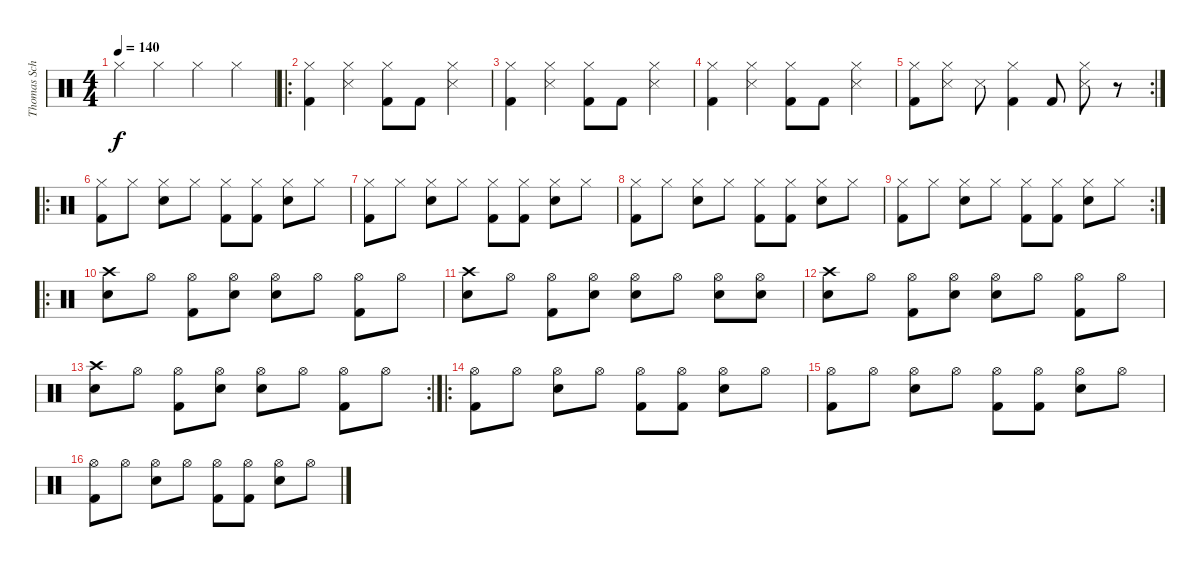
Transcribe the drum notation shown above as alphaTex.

\track ("Thomas Schnitzler" "Thomas Sch") {instrument percussion}
\staff {score}
\articulation defaults
\ts (4 4)
\tempo 140
\clef neutral
\ks c "Hi-Hat (closed)".4{dy f} "Hi-Hat (closed)".4 "Hi-Hat (closed)".4 "Hi-Hat (closed)".4
|
\ro
("Hi-Hat (closed)" "Kick (hit) 2").4 ("Hi-Hat (closed)" "Snare (side stick) 3").4 ("Hi-Hat (closed)" "Kick (hit) 2").8 "Kick (hit) 2".8 ("Hi-Hat (closed)" "Snare (side stick) 3").4 |
("Hi-Hat (closed)" "Kick (hit) 2").4 ("Hi-Hat (closed)" "Snare (side stick) 3").4 ("Hi-Hat (closed)" "Kick (hit) 2").8 "Kick (hit) 2".8 ("Hi-Hat (closed)" "Snare (side stick) 3").4 |
("Hi-Hat (closed)" "Kick (hit) 2").4 ("Hi-Hat (closed)" "Snare (side stick) 3").4 ("Hi-Hat (closed)" "Kick (hit) 2").8 "Kick (hit) 2".8 ("Hi-Hat (closed)" "Snare (side stick) 3").4 |
\rc 2
("Hi-Hat (closed)" "Kick (hit) 2").8 ("Hi-Hat (closed)" "Snare (side stick) 3").8 "Snare (side stick) 3".8 ("Hi-Hat (closed)" "Kick (hit) 2").4 "Kick (hit) 2".8 ("Hi-Hat (closed)" "Snare (side stick) 3").8 r.8 |
\ro
("Hi-Hat (closed)" "Kick (hit) 2").8 "Hi-Hat (closed)".8 ("Hi-Hat (closed)" "Snare (hit) 2").8 "Hi-Hat (closed)".8 ("Hi-Hat (closed)" "Kick (hit) 2").8 ("Hi-Hat (closed)" "Kick (hit) 2").8 ("Hi-Hat (closed)" "Snare (hit) 2").8 "Hi-Hat (closed)".8 |
("Hi-Hat (closed)" "Kick (hit) 2").8 "Hi-Hat (closed)".8 ("Hi-Hat (closed)" "Snare (hit) 2").8 "Hi-Hat (closed)".8 ("Hi-Hat (closed)" "Kick (hit) 2").8 ("Hi-Hat (closed)" "Kick (hit) 2").8 ("Hi-Hat (closed)" "Snare (hit) 2").8 "Hi-Hat (closed)".8 |
("Hi-Hat (closed)" "Kick (hit) 2").8 "Hi-Hat (closed)".8 ("Hi-Hat (closed)" "Snare (hit) 2").8 "Hi-Hat (closed)".8 ("Hi-Hat (closed)" "Kick (hit) 2").8 ("Hi-Hat (closed)" "Kick (hit) 2").8 ("Hi-Hat (closed)" "Snare (hit) 2").8 "Hi-Hat (closed)".8 |
\rc 2
("Hi-Hat (closed)" "Kick (hit) 2").8 "Hi-Hat (closed)".8 ("Hi-Hat (closed)" "Snare (hit) 2").8 "Hi-Hat (closed)".8 ("Hi-Hat (closed)" "Kick (hit) 2").8 ("Hi-Hat (closed)" "Kick (hit) 2").8 ("Hi-Hat (closed)" "Snare (hit) 2").8 "Hi-Hat (closed)".8 |
\ro
("Crash high (hit)" "Snare (hit) 2").8 "Hi-Hat (open)".8 ("Hi-Hat (open)" "Kick (hit) 2").8 ("Hi-Hat (open)" "Snare (hit) 2").8 ("Hi-Hat (open)" "Snare (hit) 2").8 "Hi-Hat (open)".8 ("Hi-Hat (open)" "Kick (hit) 2").8 "Hi-Hat (open)".8 |
("Crash high (hit)" "Snare (hit) 2").8 "Hi-Hat (open)".8 ("Hi-Hat (open)" "Kick (hit) 2").8 ("Hi-Hat (open)" "Snare (hit) 2").8 ("Hi-Hat (open)" "Snare (hit) 2").8 "Hi-Hat (open)".8 ("Hi-Hat (open)" "Snare (hit) 2").8 ("Hi-Hat (open)" "Snare (hit) 2").8 |
("Crash high (hit)" "Snare (hit) 2").8 "Hi-Hat (open)".8 ("Hi-Hat (open)" "Kick (hit) 2").8 ("Hi-Hat (open)" "Snare (hit) 2").8 ("Hi-Hat (open)" "Snare (hit) 2").8 "Hi-Hat (open)".8 ("Hi-Hat (open)" "Kick (hit) 2").8 "Hi-Hat (open)".8 |
\rc 2
("Crash high (hit)" "Snare (hit) 2").8 "Hi-Hat (open)".8 ("Hi-Hat (open)" "Kick (hit) 2").8 ("Hi-Hat (open)" "Snare (hit) 2").8 ("Hi-Hat (open)" "Snare (hit) 2").8 "Hi-Hat (open)".8 ("Hi-Hat (open)" "Kick (hit) 2").8 "Hi-Hat (open)".8 |
\ro
("Hi-Hat (open)" "Kick (hit) 2").8 "Hi-Hat (open)".8 ("Hi-Hat (open)" "Snare (hit) 2").8 "Hi-Hat (open)".8 ("Hi-Hat (open)" "Kick (hit) 2").8 ("Hi-Hat (open)" "Kick (hit) 2").8 ("Hi-Hat (open)" "Snare (hit) 2").8 "Hi-Hat (open)".8 |
("Hi-Hat (open)" "Kick (hit) 2").8 "Hi-Hat (open)".8 ("Hi-Hat (open)" "Snare (hit) 2").8 "Hi-Hat (open)".8 ("Hi-Hat (open)" "Kick (hit) 2").8 ("Hi-Hat (open)" "Kick (hit) 2").8 ("Hi-Hat (open)" "Snare (hit) 2").8 "Hi-Hat (open)".8 |
("Hi-Hat (open)" "Kick (hit) 2").8 "Hi-Hat (open)".8 ("Hi-Hat (open)" "Snare (hit) 2").8 "Hi-Hat (open)".8 ("Hi-Hat (open)" "Kick (hit) 2").8 ("Hi-Hat (open)" "Kick (hit) 2").8 ("Hi-Hat (open)" "Snare (hit) 2").8 "Hi-Hat (open)".8
